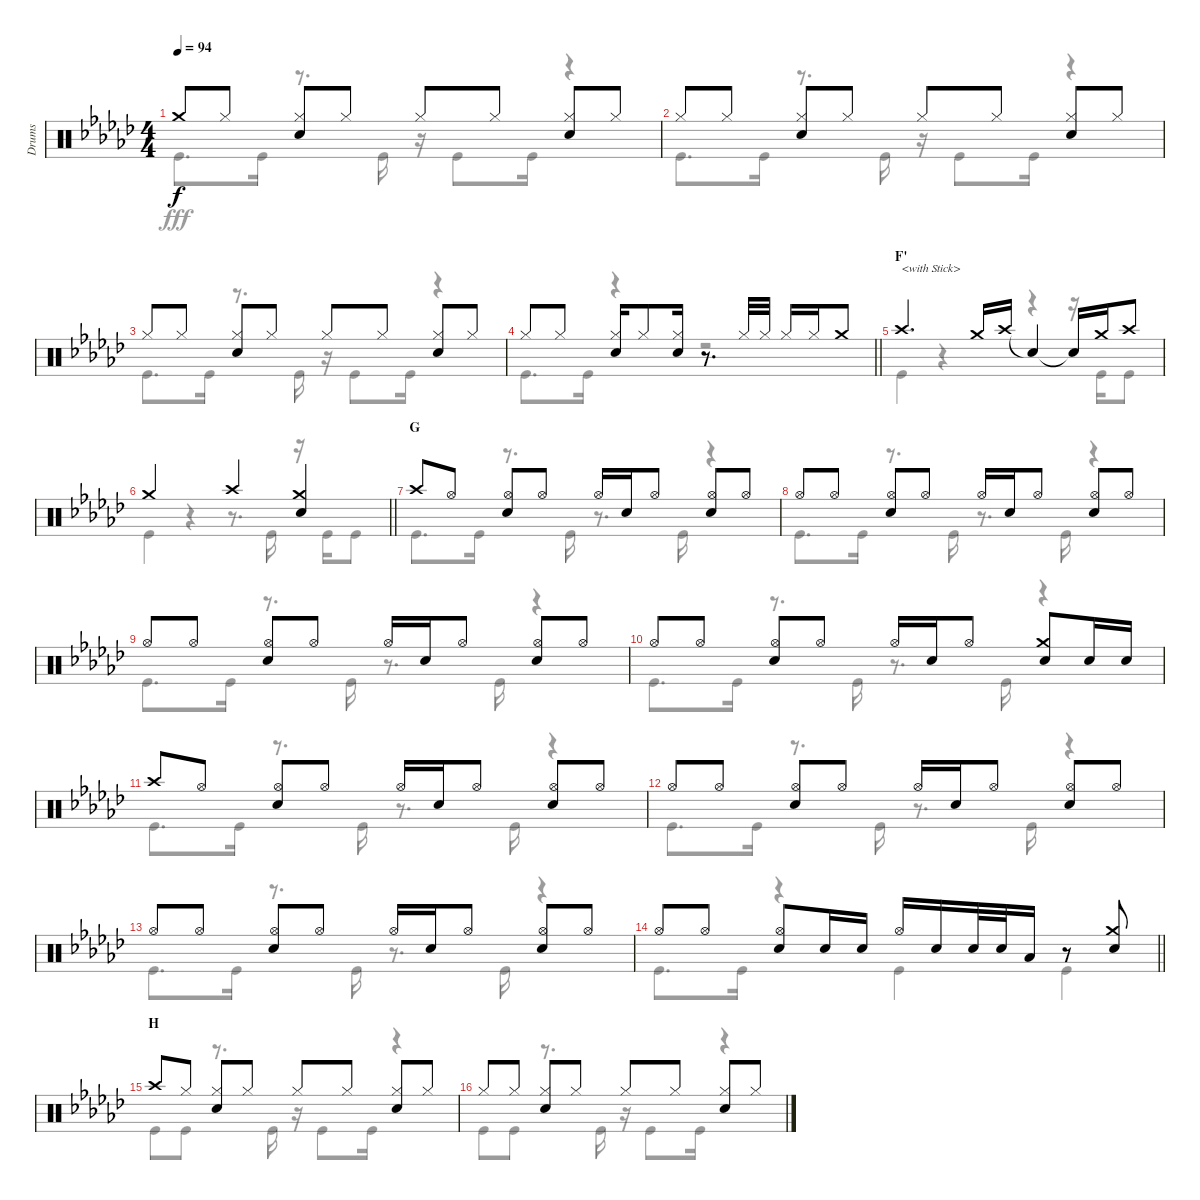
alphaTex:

\track ("Drums" "Drums") {instrument percussion}
\staff {score}
\articulation defaults
\voice
\ts (4 4)
\tempo 94
\clef neutral
\ks gb "Crash medium (hit)".8{dy f} "Hi-Hat (closed)".8
("Hi-Hat (closed)" "Electric Snare (hit)").8 "Hi-Hat (closed)".8 "Hi-Hat (closed)".8 "Hi-Hat (closed)".8 ("Hi-Hat (closed)" "Electric Snare (hit)").8 "Hi-Hat (closed)".8 |
"Hi-Hat (closed)".8 "Hi-Hat (closed)".8 ("Hi-Hat (closed)" "Electric Snare (hit)").8 "Hi-Hat (closed)".8 "Hi-Hat (closed)".8 "Hi-Hat (closed)".8 ("Hi-Hat (closed)" "Electric Snare (hit)").8 "Hi-Hat (closed)".8 |
"Hi-Hat (closed)".8 "Hi-Hat (closed)".8 ("Hi-Hat (closed)" "Electric Snare (hit)").8 "Hi-Hat (closed)".8 "Hi-Hat (closed)".8 "Hi-Hat (closed)".8 ("Hi-Hat (closed)" "Electric Snare (hit)").8 "Hi-Hat (closed)".8 |
\barLineRight lightlight "Hi-Hat (closed)".8 "Hi-Hat (closed)".8
("Hi-Hat (closed)" "Electric Snare (hit)").16 "Hi-Hat (closed)".8 ("Hi-Hat (closed)" "Electric Snare (hit)").16 r.8{d} "Hi-Hat (closed)".32 "Hi-Hat (closed)".32 "Hi-Hat (closed)".16 "Hi-Hat (closed)".16 "Crash medium (hit)".8 |
\section ("" "F'")
"Crash high (hit)".4{d txt "<with Stick>"} "Crash medium (hit)".16 "Crash high (hit)".16 "Snare (hit)"{t}.4 "Snare (hit)"{t}.16 "Crash medium (hit)".16 "Crash high (hit)".8 |
\barLineRight lightlight "Crash medium (hit)".2 "Crash high (hit)".4
("Crash medium (hit)" "Snare (hit) 2").4 |
\section ("" "G")
"Crash high (hit)".8 "Hi-Hat (open)".8 ("Hi-Hat (open)" "Snare (hit) 2").8 "Hi-Hat (open)".8 "Hi-Hat (open)".16 "Snare (hit) 2".16 "Hi-Hat (open)".8 ("Hi-Hat (open)" "Snare (hit) 2").8 "Hi-Hat (open)".8 |
"Hi-Hat (open)".8 "Hi-Hat (open)".8 ("Hi-Hat (open)" "Snare (hit) 2").8 "Hi-Hat (open)".8 "Hi-Hat (open)".16 "Snare (hit) 2".16 "Hi-Hat (open)".8 ("Hi-Hat (open)" "Snare (hit) 2").8 "Hi-Hat (open)".8 |
"Hi-Hat (open)".8 "Hi-Hat (open)".8 ("Hi-Hat (open)" "Snare (hit) 2").8 "Hi-Hat (open)".8 "Hi-Hat (open)".16 "Snare (hit) 2".16 "Hi-Hat (open)".8 ("Hi-Hat (open)" "Snare (hit) 2").8 "Hi-Hat (open)".8 |
"Hi-Hat (open)".8 "Hi-Hat (open)".8 ("Hi-Hat (open)" "Snare (hit) 2").8 "Hi-Hat (open)".8 "Hi-Hat (open)".16 "Snare (hit) 2".16 "Hi-Hat (open)".8 ("Crash medium (hit)" "Snare (hit) 2").8 "Snare (hit) 2".16 "Snare (hit) 2".16 |
"Crash high (hit)".8 "Hi-Hat (open)".8 ("Hi-Hat (open)" "Snare (hit) 2").8 "Hi-Hat (open)".8 "Hi-Hat (open)".16 "Snare (hit) 2".16 "Hi-Hat (open)".8 ("Hi-Hat (open)" "Snare (hit) 2").8 "Hi-Hat (open)".8 |
"Hi-Hat (open)".8 "Hi-Hat (open)".8 ("Hi-Hat (open)" "Snare (hit) 2").8 "Hi-Hat (open)".8 "Hi-Hat (open)".16 "Snare (hit) 2".16 "Hi-Hat (open)".8 ("Hi-Hat (open)" "Snare (hit) 2").8 "Hi-Hat (open)".8 |
"Hi-Hat (open)".8 "Hi-Hat (open)".8 ("Hi-Hat (open)" "Snare (hit) 2").8 "Hi-Hat (open)".8 "Hi-Hat (open)".16 "Snare (hit) 2".16 "Hi-Hat (open)".8 ("Hi-Hat (open)" "Snare (hit) 2").8 "Hi-Hat (open)".8 |
\barLineRight lightlight "Hi-Hat (open)".8 "Hi-Hat (open)".8
("Hi-Hat (open)" "Snare (hit) 2").8 "Snare (hit) 2".16 "Snare (hit) 2".16 "Hi-Hat (open)".16 "Snare (hit) 2".16 "Snare (hit) 2".32 "Snare (hit) 2".32 "Low Tom (hit)".16 r.8 ("Crash medium (hit)" "Snare (hit) 2").8 |
\section ("" "H")
"Crash high (hit)".8 "Hi-Hat (closed)".8 ("Hi-Hat (closed)" "Snare (hit) 2").8 "Hi-Hat (closed)".8 "Hi-Hat (closed)".8 "Hi-Hat (closed)".8 ("Hi-Hat (closed)" "Snare (hit) 2").8 "Hi-Hat (closed)".8 |
"Hi-Hat (closed)".8 "Hi-Hat (closed)".8 ("Hi-Hat (closed)" "Snare (hit) 2").8 "Hi-Hat (closed)".8 "Hi-Hat (closed)".8 "Hi-Hat (closed)".8 ("Hi-Hat (closed)" "Snare (hit) 2").8 "Hi-Hat (closed)".8
\voice
\clef neutral
\ottava regular
\simile none
\ks gb "Kick (hit)".8{d dy fff} "Kick (hit)".16
r.8{d} "Kick (hit)".16 r.16 "Kick (hit)".8 "Kick (hit)".16 r.4 |
"Kick (hit)".8{d} "Kick (hit)".16 r.8{d} "Kick (hit)".16 r.16 "Kick (hit)".8 "Kick (hit)".16 r.4 |
"Kick (hit)".8{d} "Kick (hit)".16 r.8{d} "Kick (hit)".16 r.16 "Kick (hit)".8 "Kick (hit)".16 r.4 |
\barLineRight lightlight "Kick (hit)".8{d} "Kick (hit)".16
r.4 r.2 |
"Kick (hit)".4 r.4 r.4 r.16 "Kick (hit)".16 "Kick (hit)".8 |
\barLineRight lightlight "Kick (hit)".4
r.4 r.8{d} "Kick (hit)".16 r.16 "Kick (hit)".16 "Kick (hit)".8 |
"Kick (hit)".8{d} "Kick (hit)".16 r.8{d} "Kick (hit)".16 r.8{d} "Kick (hit)".16 r.4 |
"Kick (hit)".8{d} "Kick (hit)".16 r.8{d} "Kick (hit)".16 r.8{d} "Kick (hit)".16 r.4 |
"Kick (hit)".8{d} "Kick (hit)".16 r.8{d} "Kick (hit)".16 r.8{d} "Kick (hit)".16 r.4 |
"Kick (hit)".8{d} "Kick (hit)".16 r.8{d} "Kick (hit)".16 r.8{d} "Kick (hit)".16 r.4 |
"Kick (hit)".8{d} "Kick (hit)".16 r.8{d} "Kick (hit)".16 r.8{d} "Kick (hit)".16 r.4 |
"Kick (hit)".8{d} "Kick (hit)".16 r.8{d} "Kick (hit)".16 r.8{d} "Kick (hit)".16 r.4 |
"Kick (hit)".8{d} "Kick (hit)".16 r.8{d} "Kick (hit)".16 r.8{d} "Kick (hit)".16 r.4 |
\barLineRight lightlight "Kick (hit)".8{d} "Kick (hit)".16
r.4 "Kick (hit)".4 "Kick (hit)".4 |
"Kick (hit)".8 "Kick (hit)".8 r.8{d} "Kick (hit)".16 r.16 "Kick (hit)".8 "Kick (hit)".16 r.4 |
"Kick (hit)".8 "Kick (hit)".8 r.8{d} "Kick (hit)".16 r.16 "Kick (hit)".8 "Kick (hit)".16 r.4
